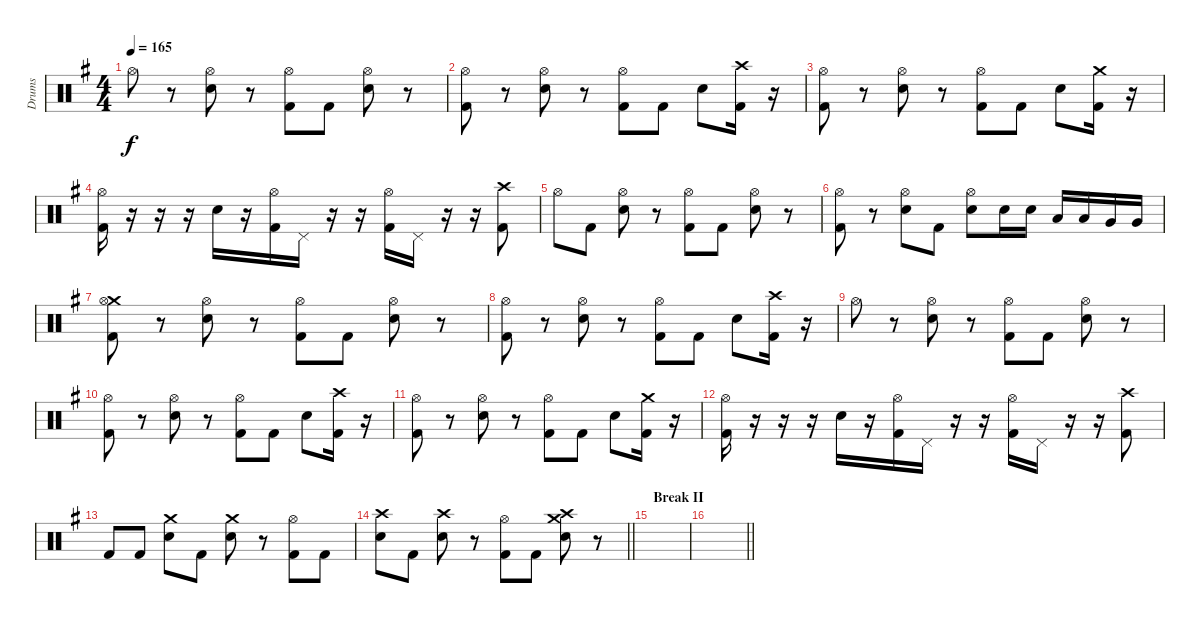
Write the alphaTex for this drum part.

\track ("Drums" "Drums") {instrument percussion}
\staff {score}
\articulation defaults
\ts (4 4)
\tempo 165
\clef neutral
\ks eminor "Hi-Hat (open)".8{dy f}
r.8 ("Hi-Hat (open)" "Electric Snare (hit)").8 r.8 ("Hi-Hat (open)" "Kick (hit) 2").8 "Kick (hit) 2".8 ("Hi-Hat (open)" "Electric Snare (hit)").8 r.8 |
("Hi-Hat (open)" "Kick (hit) 2").8 r.8 ("Hi-Hat (open)" "Electric Snare (hit)").8 r.8 ("Hi-Hat (open)" "Kick (hit) 2").8 "Kick (hit) 2".8 "Electric Snare (hit)".8 ("Crash high (hit)" "Kick (hit) 2").16 r.16 |
("Hi-Hat (open)" "Kick (hit) 2").8 r.8 ("Hi-Hat (open)" "Electric Snare (hit)").8 r.8 ("Hi-Hat (open)" "Kick (hit) 2").8 "Kick (hit) 2".8 "Electric Snare (hit)".8 ("Crash medium (hit)" "Kick (hit) 2").16 r.16 |
("Hi-Hat (open)" "Kick (hit) 2").16 r.16 r.16 r.16 "Electric Snare (hit)".16 r.16 ("Hi-Hat (open)" "Kick (hit) 2").16 "Pedal Hi-Hat (hit)".16 r.16 r.16 ("Hi-Hat (open)" "Kick (hit) 2").16 "Pedal Hi-Hat (hit)".16 r.16 r.16 ("Crash high (hit)" "Kick (hit) 2").8 |
"Hi-Hat (open)".8 "Kick (hit) 2".8 ("Hi-Hat (open)" "Electric Snare (hit)").8 r.8 ("Hi-Hat (open)" "Kick (hit) 2").8 "Kick (hit) 2".8 ("Hi-Hat (open)" "Electric Snare (hit)").8 r.8 |
("Hi-Hat (open)" "Kick (hit) 2").8 r.8 ("Hi-Hat (open)" "Electric Snare (hit)").8 "Kick (hit) 2".8 ("Hi-Hat (open)" "Electric Snare (hit)").8 "Electric Snare (hit)".16 "Electric Snare (hit)".16 "Low Tom (hit)".16 "Low Tom (hit)".16 "Very Low Tom (hit)".16 "Very Low Tom (hit)".16 |
("Crash medium (hit)" "Hi-Hat (open)" "Kick (hit) 2").8 r.8 ("Hi-Hat (open)" "Electric Snare (hit)").8 r.8 ("Hi-Hat (open)" "Kick (hit) 2").8 "Kick (hit) 2".8 ("Hi-Hat (open)" "Electric Snare (hit)").8 r.8 |
("Hi-Hat (open)" "Kick (hit) 2").8 r.8 ("Hi-Hat (open)" "Electric Snare (hit)").8 r.8 ("Hi-Hat (open)" "Kick (hit) 2").8 "Kick (hit) 2".8 "Electric Snare (hit)".8 ("Crash high (hit)" "Kick (hit) 2").16 r.16 |
"Hi-Hat (open)".8 r.8 ("Hi-Hat (open)" "Electric Snare (hit)").8 r.8 ("Hi-Hat (open)" "Kick (hit) 2").8 "Kick (hit) 2".8 ("Hi-Hat (open)" "Electric Snare (hit)").8 r.8 |
("Hi-Hat (open)" "Kick (hit) 2").8 r.8 ("Hi-Hat (open)" "Electric Snare (hit)").8 r.8 ("Hi-Hat (open)" "Kick (hit) 2").8 "Kick (hit) 2".8 "Electric Snare (hit)".8 ("Crash high (hit)" "Kick (hit) 2").16 r.16 |
("Hi-Hat (open)" "Kick (hit) 2").8 r.8 ("Hi-Hat (open)" "Electric Snare (hit)").8 r.8 ("Hi-Hat (open)" "Kick (hit) 2").8 "Kick (hit) 2".8 "Electric Snare (hit)".8 ("Crash medium (hit)" "Kick (hit) 2").16 r.16 |
("Hi-Hat (open)" "Kick (hit) 2").16 r.16 r.16 r.16 "Electric Snare (hit)".16 r.16 ("Hi-Hat (open)" "Kick (hit) 2").16 "Pedal Hi-Hat (hit)".16 r.16 r.16 ("Hi-Hat (open)" "Kick (hit) 2").16 "Pedal Hi-Hat (hit)".16 r.16 r.16 ("Crash high (hit)" "Kick (hit) 2").8 |
"Kick (hit) 2".8 "Kick (hit) 2".8 ("Crash medium (hit)" "Electric Snare (hit)").8 "Kick (hit) 2".8 ("Crash medium (hit)" "Electric Snare (hit)").8 r.8 ("Hi-Hat (open)" "Kick (hit) 2").8 "Kick (hit) 2".8 |
\barLineRight lightlight
("Crash high (hit)" "Electric Snare (hit)").8 "Kick (hit) 2".8 ("Crash high (hit)" "Electric Snare (hit)").8 r.8 ("Hi-Hat (open)" "Kick (hit) 2").8 "Kick (hit) 2".8 ("Crash high (hit)" "Crash medium (hit)" "Electric Snare (hit)").8 r.8 |
\section ("" "Break II")
|
\barLineRight lightlight
